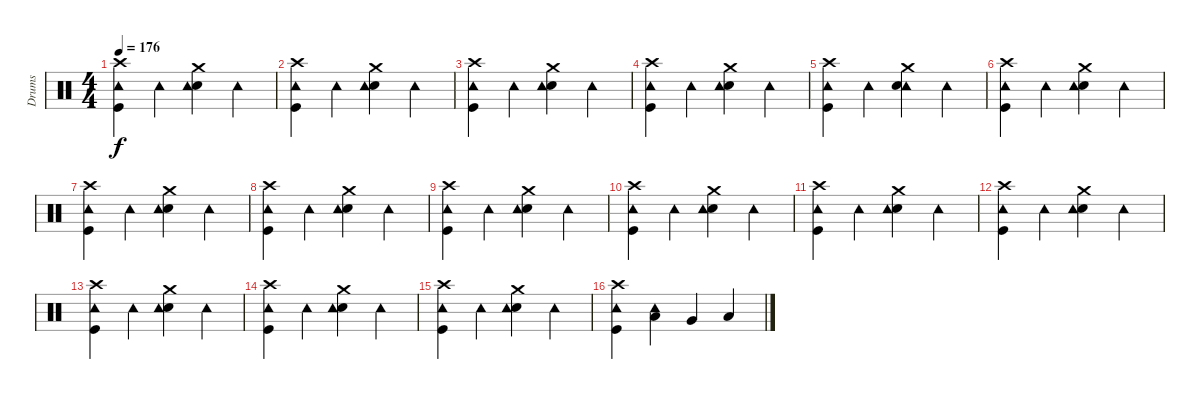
\track ("Drums" "Drums") {instrument percussion}
\staff {score}
\articulation defaults
\ts (4 4)
\tempo 176
\clef neutral
\ks c
("Crash high (hit)" "Kick (hit)" "Tambourine (hit)").4{dy f} "Tambourine (hit)".4 ("Crash medium (hit)" "Electric Snare (hit)" "Tambourine (hit)").4 "Tambourine (hit)".4 |
("Crash high (hit)" "Kick (hit)" "Tambourine (hit)").4 "Tambourine (hit)".4 ("Crash medium (hit)" "Electric Snare (hit)" "Tambourine (hit)").4 "Tambourine (hit)".4 |
("Crash high (hit)" "Kick (hit)" "Tambourine (hit)").4 "Tambourine (hit)".4 ("Crash medium (hit)" "Electric Snare (hit)" "Tambourine (hit)").4 "Tambourine (hit)".4 |
("Crash high (hit)" "Kick (hit)" "Tambourine (hit)").4 "Tambourine (hit)".4 ("Crash medium (hit)" "Electric Snare (hit)" "Tambourine (hit)").4 "Tambourine (hit)".4 |
("Tambourine (hit)" "Crash high (hit)" "Kick (hit)").4 "Tambourine (hit)".4 ("Tambourine (hit)" "Crash medium (hit)" "Electric Snare (hit)").4 "Tambourine (hit)".4 |
("Crash high (hit)" "Kick (hit)" "Tambourine (hit)").4 "Tambourine (hit)".4 ("Crash medium (hit)" "Electric Snare (hit)" "Tambourine (hit)").4 "Tambourine (hit)".4 |
("Crash high (hit)" "Kick (hit)" "Tambourine (hit)").4 "Tambourine (hit)".4 ("Crash medium (hit)" "Electric Snare (hit)" "Tambourine (hit)").4 "Tambourine (hit)".4 |
("Crash high (hit)" "Kick (hit)" "Tambourine (hit)").4 "Tambourine (hit)".4 ("Crash medium (hit)" "Electric Snare (hit)" "Tambourine (hit)").4 "Tambourine (hit)".4 |
("Crash high (hit)" "Kick (hit)" "Tambourine (hit)").4 "Tambourine (hit)".4 ("Crash medium (hit)" "Electric Snare (hit)" "Tambourine (hit)").4 "Tambourine (hit)".4 |
("Crash high (hit)" "Kick (hit)" "Tambourine (hit)").4 "Tambourine (hit)".4 ("Crash medium (hit)" "Electric Snare (hit)" "Tambourine (hit)").4 "Tambourine (hit)".4 |
("Crash high (hit)" "Kick (hit)" "Tambourine (hit)").4 "Tambourine (hit)".4 ("Crash medium (hit)" "Electric Snare (hit)" "Tambourine (hit)").4 "Tambourine (hit)".4 |
("Crash high (hit)" "Kick (hit)" "Tambourine (hit)").4 "Tambourine (hit)".4 ("Crash medium (hit)" "Electric Snare (hit)" "Tambourine (hit)").4 "Tambourine (hit)".4 |
("Crash high (hit)" "Kick (hit)" "Tambourine (hit)").4 "Tambourine (hit)".4 ("Crash medium (hit)" "Electric Snare (hit)" "Tambourine (hit)").4 "Tambourine (hit)".4 |
("Crash high (hit)" "Kick (hit)" "Tambourine (hit)").4 "Tambourine (hit)".4 ("Crash medium (hit)" "Electric Snare (hit)" "Tambourine (hit)").4 "Tambourine (hit)".4 |
("Crash high (hit)" "Kick (hit)" "Tambourine (hit)").4 "Tambourine (hit)".4 ("Crash medium (hit)" "Electric Snare (hit)" "Tambourine (hit)").4 "Tambourine (hit)".4 |
("Crash high (hit)" "Kick (hit)" "Tambourine (hit)").4 ("Low Tom (hit)" "Tambourine (hit)").4 "Very Low Tom (hit)".4 "Low Floor Tom (hit)".4
